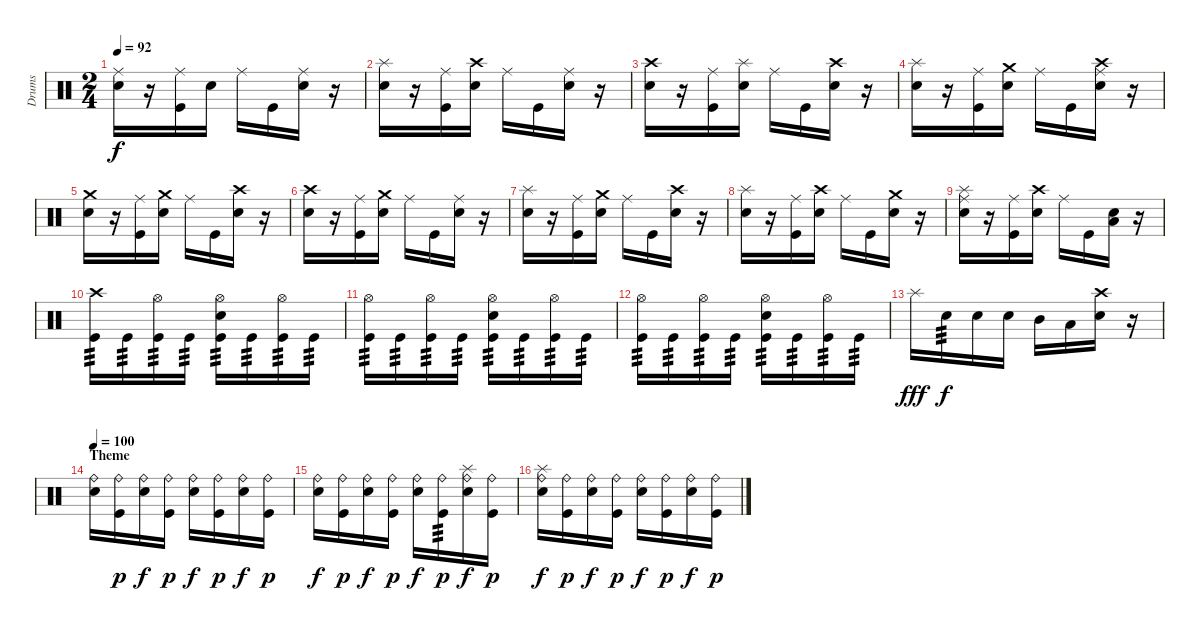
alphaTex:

\track ("Drums" "Drums") {instrument percussion}
\staff {score}
\articulation defaults
\ts (2 4)
\tempo 92
\clef neutral
\ks c
("Ride (middle)" "Electric Snare (hit)").16{dy f} r.16 ("Ride (middle)" "Kick (hit)").16 "Electric Snare (hit)".16 "Ride (middle)".16 "Kick (hit)".16 ("Ride (middle)" "Electric Snare (hit)").16 r.16 |
("Splash (hit)" "Electric Snare (hit)").16 r.16 ("Ride (middle)" "Kick (hit)").16 ("Crash high (hit)" "Electric Snare (hit)").16 "Ride (middle)".16 "Kick (hit)".16 ("Ride (middle)" "Electric Snare (hit)").16 r.16 |
("Crash high (hit)" "Electric Snare (hit)").16 r.16 ("Ride (middle)" "Kick (hit)").16 ("Splash (hit)" "Electric Snare (hit)").16 "Ride (middle)".16 "Kick (hit)".16 ("Crash high (hit)" "Electric Snare (hit)").16 r.16 |
("Splash (hit)" "Electric Snare (hit)").16 r.16 ("Ride (middle)" "Kick (hit)").16 ("Crash medium (hit)" "Electric Snare (hit)").16 "Ride (middle)".16 "Kick (hit)".16 ("Ride (middle)" "Crash high (hit)" "Electric Snare (hit)").16 r.16 |
("Crash medium (hit)" "Electric Snare (hit)").16 r.16 ("Ride (middle)" "Kick (hit)").16 ("Crash medium (hit)" "Electric Snare (hit)").16 "Ride (middle)".16 "Kick (hit)".16 ("Crash high (hit)" "Electric Snare (hit)").16 r.16 |
("Crash high (hit)" "Electric Snare (hit)").16 r.16 ("Ride (middle)" "Kick (hit)").16 ("Crash medium (hit)" "Electric Snare (hit)").16 "Ride (middle)".16 "Kick (hit)".16 ("Ride (middle)" "Electric Snare (hit)").16 r.16 |
("Splash (hit)" "Electric Snare (hit)").16 r.16 ("Ride (middle)" "Kick (hit)").16 ("Crash medium (hit)" "Electric Snare (hit)").16 "Ride (middle)".16 "Kick (hit)".16 ("Crash high (hit)" "Electric Snare (hit)").16 r.16 |
("Splash (hit)" "Electric Snare (hit)").16 r.16 ("Ride (middle)" "Kick (hit)").16 ("Crash high (hit)" "Electric Snare (hit)").16 "Ride (middle)".16 "Kick (hit)".16 ("Crash medium (hit)" "Electric Snare (hit)").16 r.16 |
("Ride (middle)" "Splash (hit)" "Electric Snare (hit)").16 r.16 ("Ride (middle)" "Kick (hit)").16 ("Crash high (hit)" "Electric Snare (hit)").16 "Ride (middle)".16 "Kick (hit)".16 ("Electric Snare (hit)" "Low Floor Tom (hit)").16 r.16 |
("Kick (hit)" "Crash high (hit)").16{tp 3} "Kick (hit)".16{tp 3} ("Kick (hit)" "Hi-Hat (open)").16{tp 3} "Kick (hit)".16{tp 3} ("Kick (hit)" "Hi-Hat (open)" "Electric Snare (hit)").16{tp 3} "Kick (hit)".16{tp 3} ("Kick (hit)" "Hi-Hat (open)").16{tp 3} "Kick (hit)".16{tp 3} |
("Kick (hit)" "Hi-Hat (open)").16{tp 3} "Kick (hit)".16{tp 3} ("Kick (hit)" "Hi-Hat (open)").16{tp 3} "Kick (hit)".16{tp 3} ("Kick (hit)" "Hi-Hat (open)" "Electric Snare (hit)").16{tp 3} "Kick (hit)".16{tp 3} ("Kick (hit)" "Hi-Hat (open)").16{tp 3} "Kick (hit)".16{tp 3} |
("Kick (hit)" "Hi-Hat (open)").16{tp 3} "Kick (hit)".16{tp 3} ("Kick (hit)" "Hi-Hat (open)").16{tp 3} "Kick (hit)".16{tp 3} ("Kick (hit)" "Hi-Hat (open)" "Electric Snare (hit)").16{tp 3} "Kick (hit)".16{tp 3} ("Kick (hit)" "Hi-Hat (open)").16{tp 3} "Kick (hit)".16{tp 3} |
"Splash (hit)".16{dy fff} "Electric Snare (hit)".16{tp 3 dy f} "Electric Snare (hit)".16 "Electric Snare (hit)".16 "Mid Tom (hit)".16 "Low Tom (hit)".16 ("Electric Snare (hit)" "Crash high (hit)").16 r.16 |
\section ("" "Theme")
\tempo 100
("Electric Snare (hit)" "Ride (bell)").16 ("Kick (hit)" "Ride (bell)").16{dy p} ("Electric Snare (hit)" "Ride (bell)").16{dy f} ("Kick (hit)" "Ride (bell)").16{dy p} ("Electric Snare (hit)" "Ride (bell)").16{dy f} ("Kick (hit)" "Ride (bell)").16{dy p} ("Electric Snare (hit)" "Ride (bell)").16{dy f} ("Kick (hit)" "Ride (bell)").16{dy p} |
("Electric Snare (hit)" "Ride (bell)").16{dy f} ("Kick (hit)" "Ride (bell)").16{dy p} ("Electric Snare (hit)" "Ride (bell)").16{dy f} ("Kick (hit)" "Ride (bell)").16{dy p} ("Electric Snare (hit)" "Ride (bell)").16{dy f} ("Kick (hit)" "Ride (bell)").16{tp 3 dy p} ("Electric Snare (hit)" "Splash (hit)" "Ride (bell)").16{dy f} ("Kick (hit)" "Ride (bell)").16{dy p} |
("Electric Snare (hit)" "Splash (hit)" "Ride (bell)").16{dy f} ("Kick (hit)" "Ride (bell)").16{dy p} ("Electric Snare (hit)" "Ride (bell)").16{dy f} ("Kick (hit)" "Ride (bell)").16{dy p} ("Electric Snare (hit)" "Ride (bell)").16{dy f} ("Kick (hit)" "Ride (bell)").16{dy p} ("Electric Snare (hit)" "Ride (bell)").16{dy f} ("Kick (hit)" "Ride (bell)").16{dy p}
